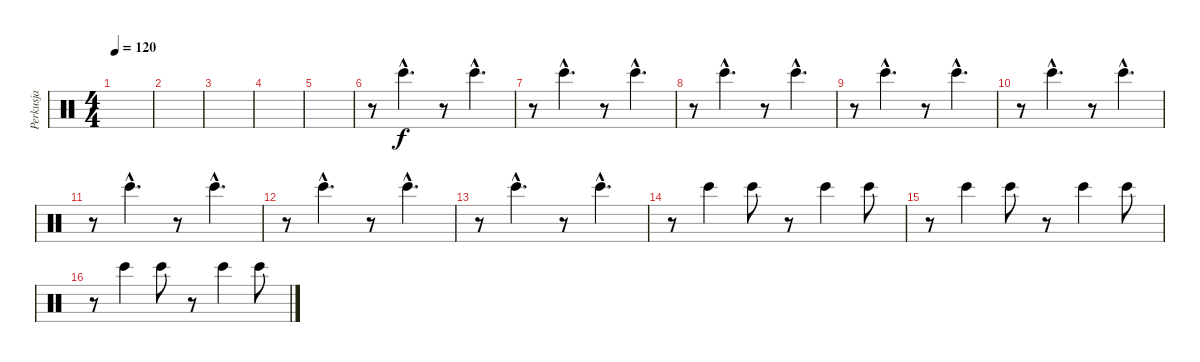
\track ("Perkusja" "Perkusja") {instrument percussion}
\staff {score}
\articulation defaults
\ts (4 4)
\tempo 120
\clef neutral
\ks c
|
|
|
|
|
r.8 "Bongo High (hit)"{hac}.4{d} r.8 "Bongo High (hit)"{hac}.4{d} |
r.8 "Bongo High (hit)"{hac}.4{d} r.8 "Bongo High (hit)"{hac}.4{d} |
r.8 "Bongo High (hit)"{hac}.4{d} r.8 "Bongo High (hit)"{hac}.4{d} |
r.8 "Bongo High (hit)"{hac}.4{d} r.8 "Bongo High (hit)"{hac}.4{d} |
r.8 "Bongo High (hit)"{hac}.4{d} r.8 "Bongo High (hit)"{hac}.4{d} |
r.8 "Bongo High (hit)"{hac}.4{d} r.8 "Bongo High (hit)"{hac}.4{d} |
r.8 "Bongo High (hit)"{hac}.4{d} r.8 "Bongo High (hit)"{hac}.4{d} |
r.8 "Bongo High (hit)"{hac}.4{d} r.8 "Bongo High (hit)"{hac}.4{d} |
r.8 "Bongo High (hit)".4 "Bongo High (hit)".8 r.8 "Bongo High (hit)".4 "Bongo High (hit)".8 |
r.8 "Bongo High (hit)".4 "Bongo High (hit)".8 r.8 "Bongo High (hit)".4 "Bongo High (hit)".8 |
r.8 "Bongo High (hit)".4 "Bongo High (hit)".8 r.8 "Bongo High (hit)".4 "Bongo High (hit)".8
